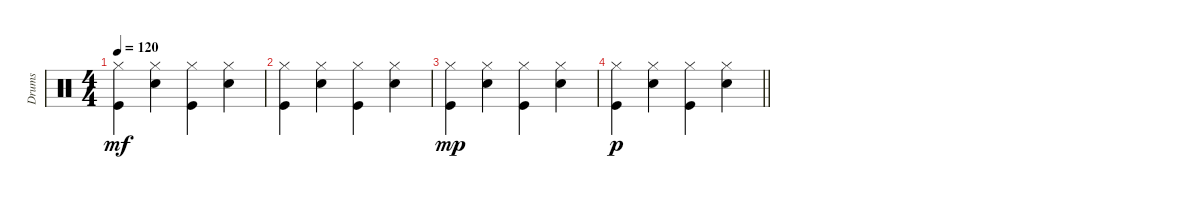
\track ("Drums" "Drums") {instrument percussion}
\staff {score}
\articulation defaults
\ts (4 4)
\tempo 120
\clef neutral
\ks c
("Hi-Hat (closed)" "Kick (hit)").4{dy mf} ("Hi-Hat (closed)" "Snare (hit) 2").4 ("Hi-Hat (closed)" "Kick (hit)").4 ("Hi-Hat (closed)" "Snare (hit) 2").4 |
("Hi-Hat (closed)" "Kick (hit)").4 ("Hi-Hat (closed)" "Snare (hit) 2").4 ("Hi-Hat (closed)" "Kick (hit)").4 ("Hi-Hat (closed)" "Snare (hit) 2").4 |
("Hi-Hat (closed)" "Kick (hit)").4{dy mp} ("Hi-Hat (closed)" "Snare (hit) 2").4 ("Hi-Hat (closed)" "Kick (hit)").4 ("Hi-Hat (closed)" "Snare (hit) 2").4 |
\barLineRight lightlight
("Hi-Hat (closed)" "Kick (hit)").4{dy p} ("Hi-Hat (closed)" "Snare (hit) 2").4 ("Hi-Hat (closed)" "Kick (hit)").4 ("Hi-Hat (closed)" "Snare (hit) 2").4
